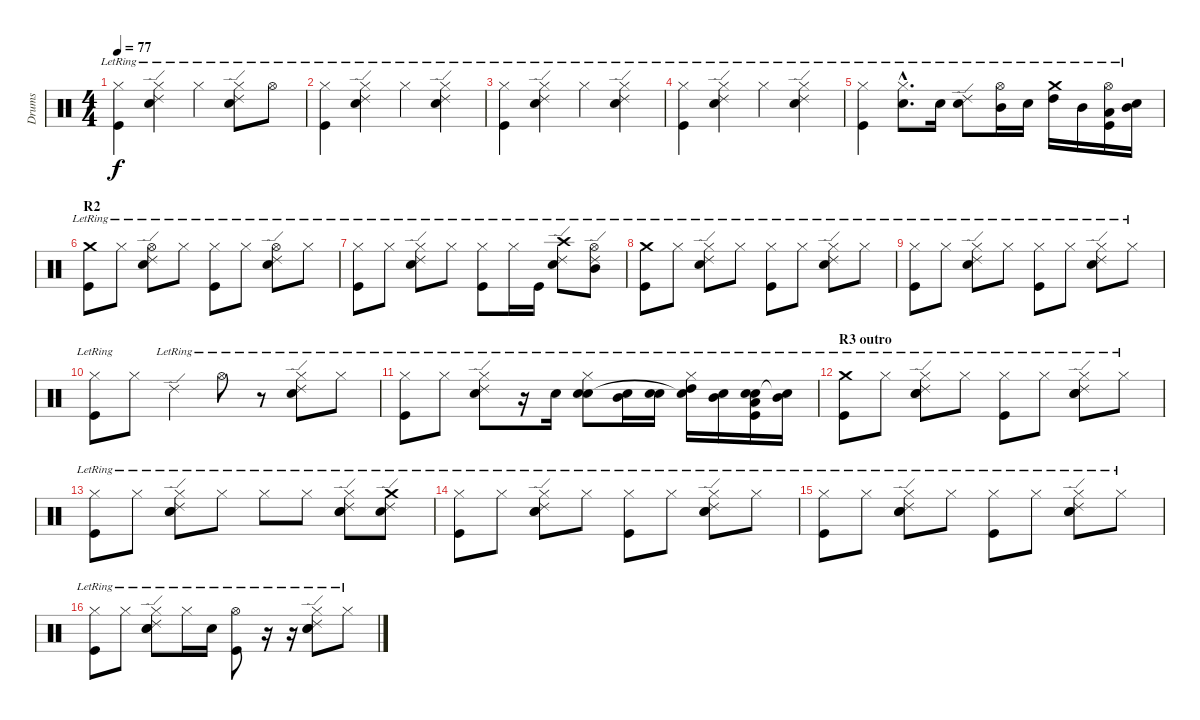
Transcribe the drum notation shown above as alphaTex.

\track ("Drums" "Drums") {instrument percussion}
\staff {score}
\articulation defaults
\ts (4 4)
\tempo 77
\clef neutral
\ks c
("Hi-Hat (closed)"{lr} "Kick (hit)"{lr}).4{dy f} ("Hi-Hat (closed)"{lr} "Snare (hit) 2"{lr} "Ride (edge) 2"{lr}).4 "Hi-Hat (closed)"{lr}.4 ("Hi-Hat (closed)"{lr} "Snare (hit) 2"{lr} "Ride (edge) 2"{lr}).8 "Hi-Hat (open)"{lr}.8 |
("Hi-Hat (closed)"{lr} "Kick (hit)"{lr}).4 ("Hi-Hat (closed)"{lr} "Snare (hit) 2"{lr} "Ride (edge) 2"{lr}).4 "Hi-Hat (closed)"{lr}.4 ("Hi-Hat (closed)"{lr} "Snare (hit) 2"{lr} "Ride (edge) 2"{lr}).4 |
("Hi-Hat (closed)"{lr} "Kick (hit)"{lr}).4 ("Hi-Hat (closed)"{lr} "Snare (hit) 2"{lr} "Ride (edge) 2"{lr}).4 "Hi-Hat (closed)"{lr}.4 ("Hi-Hat (closed)"{lr} "Snare (hit) 2"{lr} "Ride (edge) 2"{lr}).4 |
("Hi-Hat (closed)"{lr} "Kick (hit)"{lr}).4 ("Hi-Hat (closed)"{lr} "Snare (hit) 2"{lr} "Ride (edge) 2"{lr}).4 "Hi-Hat (closed)"{lr}.4 ("Hi-Hat (closed)"{lr} "Snare (hit) 2"{lr} "Ride (edge) 2"{lr}).4 |
("Hi-Hat (closed)"{lr} "Kick (hit)"{lr}).4 ("Hi-Hat (closed)"{hac lr} "Snare (hit) 2"{hac lr}).8{d} "Snare (hit) 2"{lr}.16 ("Ride (edge) 2"{lr} "Snare (hit) 2"{lr}).8 ("Hi-Hat (open)"{lr} "Mid Tom (hit)"{lr}).16 "Snare (hit) 2"{lr}.16 ("Crash medium (hit)"{lr} "High Tom (hit)"{lr}).16 "Mid Tom (hit)"{lr}.16 ("Hi-Hat (open)"{lr} "Low Tom (hit)"{lr} "Kick (hit)"{lr}).16 ("Snare (hit) 2"{lr} "Mid Tom (hit)"{lr}).16 |
\section ("" "R2")
("Crash medium (hit)"{lr} "Kick (hit)"{lr}).8 "Hi-Hat (closed)"{lr}.8 ("Hi-Hat (open)"{lr} "Snare (hit) 2"{lr} "Ride (edge) 2"{lr}).8 "Hi-Hat (closed)"{lr}.8 ("Hi-Hat (closed)"{lr} "Kick (hit)"{lr}).8 "Hi-Hat (closed)"{lr}.8 ("Hi-Hat (open)"{lr} "Snare (hit) 2"{lr} "Ride (edge) 2"{lr}).8 "Hi-Hat (closed)"{lr}.8 |
("Hi-Hat (closed)"{lr} "Kick (hit)"{lr}).8 "Hi-Hat (closed)"{lr}.8 ("Hi-Hat (closed)"{lr} "Snare (hit) 2"{lr} "Ride (edge) 2"{lr}).8 "Hi-Hat (closed)"{lr}.8 ("Hi-Hat (closed)"{lr} "Kick (hit)"{lr}).8 "Hi-Hat (closed)"{lr}.16 "Kick (hit)"{lr}.16 ("Crash high (hit)"{lr} "Snare (hit) 2"{lr} "Ride (edge) 2"{lr}).8 ("Hi-Hat (open)"{lr} "Mid Tom (hit)"{lr} "Ride (edge) 2"{lr}).8 |
("Crash medium (hit)"{lr} "Kick (hit)"{lr}).8 "Hi-Hat (closed)"{lr}.8 ("Hi-Hat (closed)"{lr} "Snare (hit) 2"{lr} "Ride (edge) 2"{lr}).8 "Hi-Hat (closed)"{lr}.8 ("Hi-Hat (closed)"{lr} "Kick (hit)"{lr}).8 "Hi-Hat (closed)"{lr}.8 ("Hi-Hat (closed)"{lr} "Snare (hit) 2"{lr} "Ride (edge) 2"{lr}).8 "Hi-Hat (closed)"{lr}.8 |
("Hi-Hat (closed)"{lr} "Kick (hit)"{lr}).8 "Hi-Hat (closed)"{lr}.8 ("Hi-Hat (closed)"{lr} "Snare (hit) 2"{lr} "Ride (edge) 2"{lr}).8 "Hi-Hat (closed)"{lr}.8 ("Hi-Hat (closed)"{lr} "Kick (hit)"{lr}).8 "Hi-Hat (closed)"{lr}.8 ("Hi-Hat (closed)"{lr} "Snare (hit) 2"{lr} "Ride (edge) 2"{lr}).8 "Hi-Hat (closed)"{lr}.8 |
("Hi-Hat (closed)"{lr} "Kick (hit)"{lr}).8 "Hi-Hat (closed)".8 "Ride (edge) 2"{lr}.4 "Hi-Hat (open)"{lr}.8 r.8 ("Hi-Hat (closed)"{lr} "Snare (hit) 2"{lr} "Ride (edge) 2"{lr}).8 "Hi-Hat (closed)"{lr}.8 |
("Hi-Hat (closed)"{lr} "Kick (hit)"{lr}).8 "Hi-Hat (closed)"{lr}.8 ("Hi-Hat (closed)"{lr} "Snare (hit) 2"{lr} "Ride (edge) 2"{lr}).8 r.16 "Snare (hit) 2"{lr}.16 ("Hi-Hat (closed)"{lr} "Snare (hit) 2"{lr} "Electric Snare (hit)"{lr}).8 ("Mid Tom (hit)"{lr} "Snare (hit) 2"{lr}).16 ("Snare (hit) 2"{lr} "Electric Snare (hit)"{lr}).16 ("Hi-Hat (closed)"{lr} "High Tom (hit)"{lr} "Snare (hit)"{t}).16 ("Mid Tom (hit)"{lr} "Snare (hit) 2"{lr}).16 ("Low Tom (hit)"{lr} "Snare (hit) 2"{lr} "Electric Snare (hit)"{lr} "Kick (hit)"{lr}).16 ("Mid Tom (hit)"{lr} "Snare (hit)"{t}).16 |
\section ("" "R3 outro")
("Crash medium (hit)"{lr} "Kick (hit)"{lr}).8 "Hi-Hat (closed)"{lr}.8 ("Hi-Hat (closed)"{lr} "Snare (hit) 2"{lr} "Ride (edge) 2"{lr} "Electric Snare (hit)"{lr}).8 "Hi-Hat (closed)"{lr}.8 ("Hi-Hat (closed)"{lr} "Kick (hit)"{lr}).8 "Hi-Hat (closed)"{lr}.8 ("Hi-Hat (closed)"{lr} "Snare (hit) 2"{lr} "Ride (edge) 2"{lr} "Electric Snare (hit)"{lr}).8 "Hi-Hat (closed)"{lr}.8 |
("Hi-Hat (closed)"{lr} "Kick (hit)"{lr}).8 "Hi-Hat (closed)"{lr}.8 ("Hi-Hat (closed)"{lr} "Snare (hit) 2"{lr} "Ride (edge) 2"{lr} "Electric Snare (hit)"{lr}).8 "Hi-Hat (closed)"{lr}.8 "Hi-Hat (closed)"{lr}.8 "Hi-Hat (closed)"{lr}.8 ("Hi-Hat (closed)"{lr} "Snare (hit) 2"{lr} "Ride (edge) 2"{lr} "Electric Snare (hit)"{lr}).8 ("Crash medium (hit)"{lr} "Snare (hit) 2"{lr} "Ride (edge) 2"{lr}).8 |
("Hi-Hat (closed)"{lr} "Kick (hit)"{lr}).8 "Hi-Hat (closed)"{lr}.8 ("Hi-Hat (closed)"{lr} "Snare (hit) 2"{lr} "Ride (edge) 2"{lr} "Electric Snare (hit)"{lr}).8 "Hi-Hat (closed)"{lr}.8 ("Hi-Hat (closed)"{lr} "Kick (hit)"{lr}).8 "Hi-Hat (closed)"{lr}.8 ("Hi-Hat (closed)"{lr} "Snare (hit) 2"{lr} "Ride (edge) 2"{lr} "Electric Snare (hit)"{lr}).8 "Hi-Hat (closed)"{lr}.8 |
("Hi-Hat (closed)"{lr} "Kick (hit)"{lr}).8 "Hi-Hat (closed)"{lr}.8 ("Hi-Hat (closed)"{lr} "Snare (hit) 2"{lr} "Ride (edge) 2"{lr} "Electric Snare (hit)"{lr}).8 "Hi-Hat (closed)"{lr}.8 ("Hi-Hat (closed)"{lr} "Kick (hit)"{lr}).8 "Hi-Hat (closed)"{lr}.8 ("Hi-Hat (closed)"{lr} "Snare (hit) 2"{lr} "Ride (edge) 2"{lr} "Electric Snare (hit)"{lr}).8 "Hi-Hat (closed)"{lr}.8 |
("Hi-Hat (closed)"{lr} "Kick (hit)"{lr}).8 "Hi-Hat (closed)"{lr}.8 ("Hi-Hat (closed)"{lr} "Snare (hit) 2"{lr} "Ride (edge) 2"{lr} "Electric Snare (hit)"{lr}).8 "Hi-Hat (closed)"{lr}.16 "Snare (hit) 2"{lr}.16 ("Hi-Hat (open)"{lr} "Kick (hit)"{lr}).8 r.16 r.16 ("Hi-Hat (closed)"{lr} "Snare (hit) 2"{lr} "Ride (edge) 2"{lr} "Electric Snare (hit)"{lr}).8 "Hi-Hat (closed)"{lr}.8
